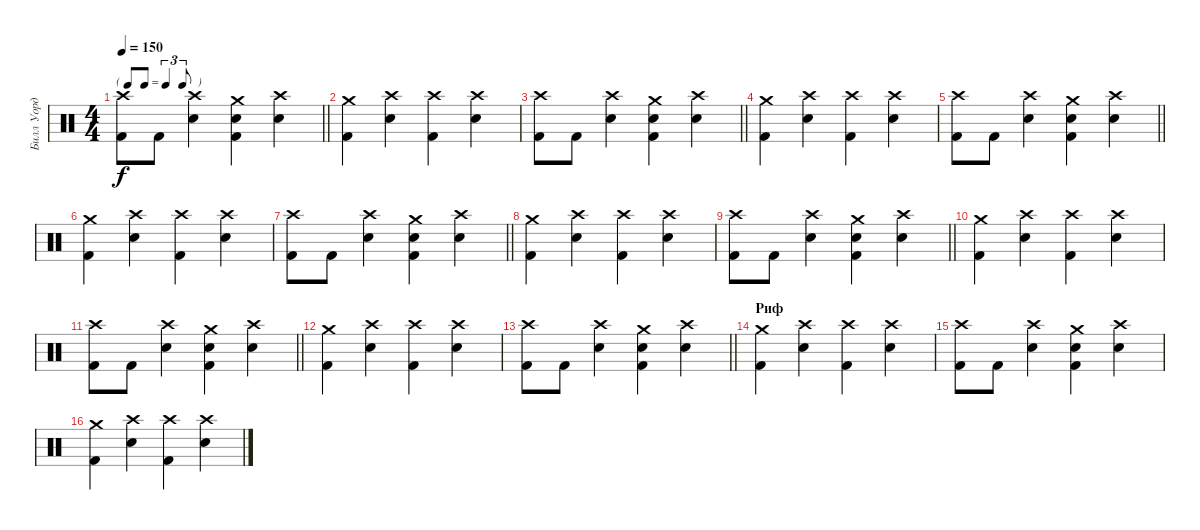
\track ("Билл Уорд" "Билл Уорд") {instrument percussion}
\staff {score}
\articulation defaults
\ts (4 4)
\tf triplet8th
\tempo 150
\clef neutral
\barLineRight lightlight
\ks c
("Kick (hit) 2" "Crash high (hit)").8{dy f} "Kick (hit) 2".8 ("Snare (hit) 2" "Crash high (hit)").4 ("Snare (hit) 2" "Kick (hit) 2" "Crash medium (hit)").4 ("Snare (hit) 2" "Crash high (hit)").4 |
("Kick (hit) 2" "Crash medium (hit)").4 ("Snare (hit) 2" "Crash high (hit)").4 ("Kick (hit) 2" "Crash high (hit)").4 ("Snare (hit) 2" "Crash high (hit)").4 |
\barLineRight lightlight
("Kick (hit) 2" "Crash high (hit)").8 "Kick (hit) 2".8 ("Snare (hit) 2" "Crash high (hit)").4 ("Snare (hit) 2" "Kick (hit) 2" "Crash medium (hit)").4 ("Snare (hit) 2" "Crash high (hit)").4 |
("Kick (hit) 2" "Crash medium (hit)").4 ("Snare (hit) 2" "Crash high (hit)").4 ("Kick (hit) 2" "Crash high (hit)").4 ("Snare (hit) 2" "Crash high (hit)").4 |
\barLineRight lightlight
("Kick (hit) 2" "Crash high (hit)").8 "Kick (hit) 2".8 ("Snare (hit) 2" "Crash high (hit)").4 ("Snare (hit) 2" "Kick (hit) 2" "Crash medium (hit)").4 ("Snare (hit) 2" "Crash high (hit)").4 |
("Kick (hit) 2" "Crash medium (hit)").4 ("Snare (hit) 2" "Crash high (hit)").4 ("Kick (hit) 2" "Crash high (hit)").4 ("Snare (hit) 2" "Crash high (hit)").4 |
\barLineRight lightlight
("Kick (hit) 2" "Crash high (hit)").8 "Kick (hit) 2".8 ("Snare (hit) 2" "Crash high (hit)").4 ("Snare (hit) 2" "Kick (hit) 2" "Crash medium (hit)").4 ("Snare (hit) 2" "Crash high (hit)").4 |
("Kick (hit) 2" "Crash medium (hit)").4 ("Snare (hit) 2" "Crash high (hit)").4 ("Kick (hit) 2" "Crash high (hit)").4 ("Snare (hit) 2" "Crash high (hit)").4 |
\barLineRight lightlight
("Kick (hit) 2" "Crash high (hit)").8 "Kick (hit) 2".8 ("Snare (hit) 2" "Crash high (hit)").4 ("Snare (hit) 2" "Kick (hit) 2" "Crash medium (hit)").4 ("Snare (hit) 2" "Crash high (hit)").4 |
("Kick (hit) 2" "Crash medium (hit)").4 ("Snare (hit) 2" "Crash high (hit)").4 ("Kick (hit) 2" "Crash high (hit)").4 ("Snare (hit) 2" "Crash high (hit)").4 |
\barLineRight lightlight
("Kick (hit) 2" "Crash high (hit)").8 "Kick (hit) 2".8 ("Snare (hit) 2" "Crash high (hit)").4 ("Snare (hit) 2" "Kick (hit) 2" "Crash medium (hit)").4 ("Snare (hit) 2" "Crash high (hit)").4 |
("Kick (hit) 2" "Crash medium (hit)").4 ("Snare (hit) 2" "Crash high (hit)").4 ("Kick (hit) 2" "Crash high (hit)").4 ("Snare (hit) 2" "Crash high (hit)").4 |
\barLineRight lightlight
("Kick (hit) 2" "Crash high (hit)").8 "Kick (hit) 2".8 ("Snare (hit) 2" "Crash high (hit)").4 ("Snare (hit) 2" "Kick (hit) 2" "Crash medium (hit)").4 ("Snare (hit) 2" "Crash high (hit)").4 |
\section ("" "Риф")
("Kick (hit) 2" "Crash medium (hit)").4 ("Snare (hit) 2" "Crash high (hit)").4 ("Kick (hit) 2" "Crash high (hit)").4 ("Snare (hit) 2" "Crash high (hit)").4 |
("Kick (hit) 2" "Crash high (hit)").8 "Kick (hit) 2".8 ("Snare (hit) 2" "Crash high (hit)").4 ("Snare (hit) 2" "Kick (hit) 2" "Crash medium (hit)").4 ("Snare (hit) 2" "Crash high (hit)").4 |
("Kick (hit) 2" "Crash medium (hit)").4 ("Snare (hit) 2" "Crash high (hit)").4 ("Kick (hit) 2" "Crash high (hit)").4 ("Snare (hit) 2" "Crash high (hit)").4
